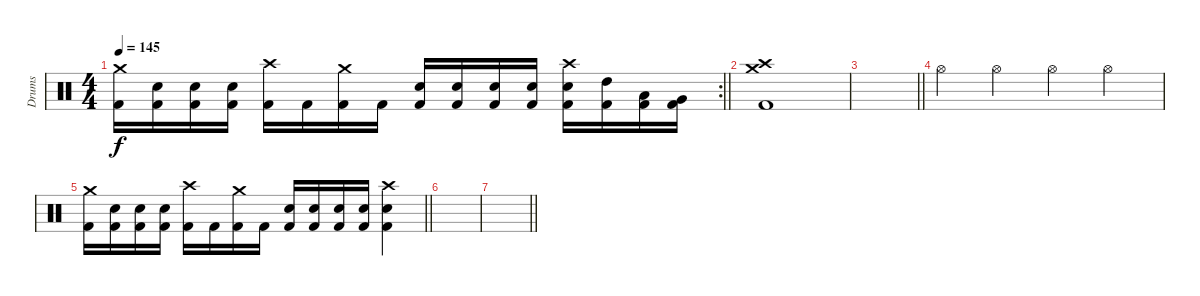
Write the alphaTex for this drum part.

\track ("Drums" "Drums") {mute instrument percussion}
\staff {score}
\articulation defaults
\rc 2
\ts (4 4)
\tempo 145
\clef neutral
\barLineRight lightlight
\ks c
("Crash medium (hit)" "Kick (hit) 2").16{dy f} ("Electric Snare (hit)" "Kick (hit) 2").16 ("Electric Snare (hit)" "Kick (hit) 2").16 ("Electric Snare (hit)" "Kick (hit) 2").16 ("Crash high (hit)" "Kick (hit) 2").16 "Kick (hit) 2".16 ("Crash medium (hit)" "Kick (hit) 2").16 "Kick (hit) 2".16 ("Electric Snare (hit)" "Kick (hit) 2").16 ("Electric Snare (hit)" "Kick (hit) 2").16 ("Electric Snare (hit)" "Kick (hit) 2").16 ("Electric Snare (hit)" "Kick (hit) 2").16 ("Crash high (hit)" "Electric Snare (hit)" "Kick (hit) 2").16 ("High Tom (hit)" "Kick (hit) 2").16 ("Low Tom (hit)" "Kick (hit) 2").16 ("Very Low Tom (hit)" "Kick (hit) 2").16 |
("Crash medium (hit)" "Crash high (hit)" "Kick (hit) 2").1 |
\barLineRight lightlight
|
"Hi-Hat (open)".4 "Hi-Hat (open)".4 "Hi-Hat (open)".4 "Hi-Hat (open)".4 |
\barLineRight lightlight
("Crash medium (hit)" "Kick (hit) 2").16 ("Electric Snare (hit)" "Kick (hit) 2").16 ("Electric Snare (hit)" "Kick (hit) 2").16 ("Electric Snare (hit)" "Kick (hit) 2").16 ("Crash high (hit)" "Kick (hit) 2").16 "Kick (hit) 2".16 ("Crash medium (hit)" "Kick (hit) 2").16 "Kick (hit) 2".16 ("Electric Snare (hit)" "Kick (hit) 2").16 ("Electric Snare (hit)" "Kick (hit) 2").16 ("Electric Snare (hit)" "Kick (hit) 2").16 ("Electric Snare (hit)" "Kick (hit) 2").16 ("Crash high (hit)" "Electric Snare (hit)" "Kick (hit) 2").4 |
|
\barLineRight lightlight
